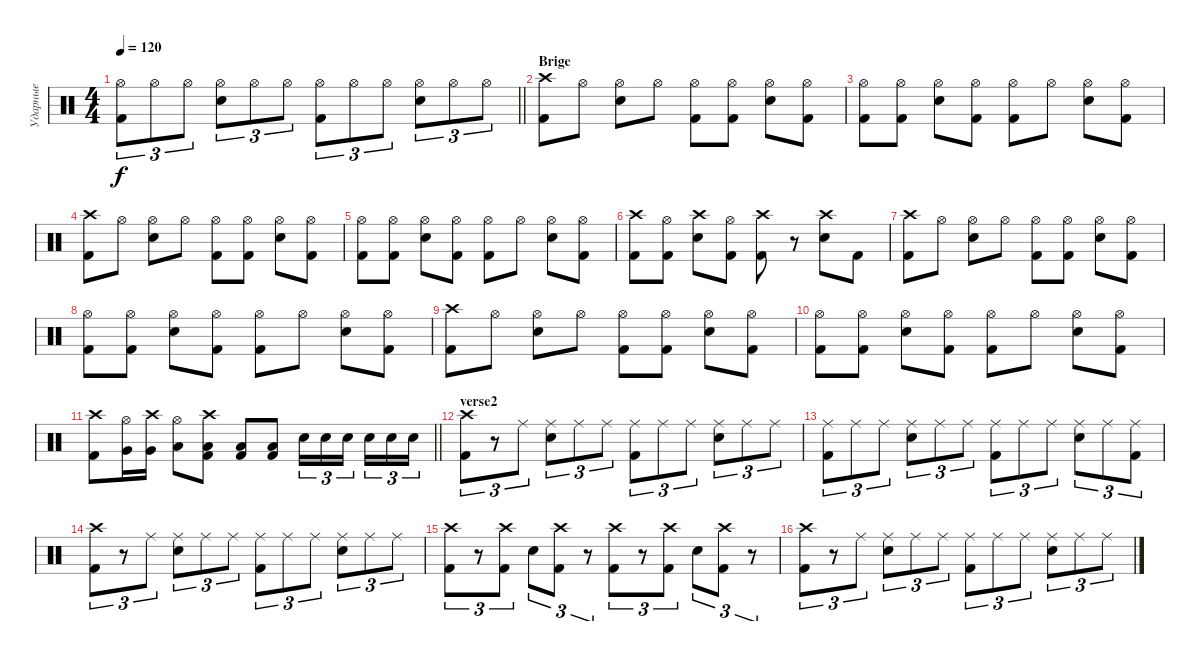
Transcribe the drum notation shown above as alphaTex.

\track ("Ударные" "Ударные") {instrument percussion}
\staff {score}
\articulation defaults
\ts (4 4)
\tempo 120
\clef neutral
\barLineRight lightlight
\ks c
("Hi-Hat (open)" "Kick (hit) 2").8{tu (3 2) dy f} "Hi-Hat (open)".8{tu (3 2)} "Hi-Hat (open)".8{tu (3 2)} ("Hi-Hat (open)" "Snare (hit) 2").8{tu (3 2)} "Hi-Hat (open)".8{tu (3 2)} "Hi-Hat (open)".8{tu (3 2)} ("Hi-Hat (open)" "Kick (hit) 2").8{tu (3 2)} "Hi-Hat (open)".8{tu (3 2)} "Hi-Hat (open)".8{tu (3 2)} ("Hi-Hat (open)" "Snare (hit) 2").8{tu (3 2)} "Hi-Hat (open)".8{tu (3 2)} "Hi-Hat (open)".8{tu (3 2)} |
\section ("" "Brige")
("Crash high (hit)" "Kick (hit) 2").8 "Hi-Hat (open)".8 ("Hi-Hat (open)" "Snare (hit) 2").8 "Hi-Hat (open)".8 ("Hi-Hat (open)" "Kick (hit) 2").8 ("Hi-Hat (open)" "Kick (hit) 2").8 ("Hi-Hat (open)" "Snare (hit) 2").8 ("Hi-Hat (open)" "Kick (hit) 2").8 |
("Hi-Hat (open)" "Kick (hit) 2").8 ("Hi-Hat (open)" "Kick (hit) 2").8 ("Hi-Hat (open)" "Snare (hit) 2").8 ("Hi-Hat (open)" "Kick (hit) 2").8 ("Hi-Hat (open)" "Kick (hit) 2").8 "Hi-Hat (open)".8 ("Hi-Hat (open)" "Snare (hit) 2").8 ("Hi-Hat (open)" "Kick (hit) 2").8 |
("Crash high (hit)" "Kick (hit) 2").8 "Hi-Hat (open)".8 ("Hi-Hat (open)" "Snare (hit) 2").8 "Hi-Hat (open)".8 ("Hi-Hat (open)" "Kick (hit) 2").8 ("Hi-Hat (open)" "Kick (hit) 2").8 ("Hi-Hat (open)" "Snare (hit) 2").8 ("Hi-Hat (open)" "Kick (hit) 2").8 |
("Hi-Hat (open)" "Kick (hit) 2").8 ("Hi-Hat (open)" "Kick (hit) 2").8 ("Hi-Hat (open)" "Snare (hit) 2").8 ("Hi-Hat (open)" "Kick (hit) 2").8 ("Hi-Hat (open)" "Kick (hit) 2").8 "Hi-Hat (open)".8 ("Hi-Hat (open)" "Snare (hit) 2").8 ("Hi-Hat (open)" "Kick (hit) 2").8 |
("Crash high (hit)" "Kick (hit) 2").8 ("Hi-Hat (open)" "Kick (hit) 2").8 ("Crash high (hit)" "Snare (hit) 2").8 ("Hi-Hat (open)" "Kick (hit) 2").8 ("Crash high (hit)" "Kick (hit) 2").8 r.8 ("Crash high (hit)" "Snare (hit) 2").8 "Kick (hit) 2".8 |
("Crash high (hit)" "Kick (hit) 2").8 "Hi-Hat (open)".8 ("Hi-Hat (open)" "Snare (hit) 2").8 "Hi-Hat (open)".8 ("Hi-Hat (open)" "Kick (hit) 2").8 ("Hi-Hat (open)" "Kick (hit) 2").8 ("Hi-Hat (open)" "Snare (hit) 2").8 ("Hi-Hat (open)" "Kick (hit) 2").8 |
("Hi-Hat (open)" "Kick (hit) 2").8 ("Hi-Hat (open)" "Kick (hit) 2").8 ("Hi-Hat (open)" "Snare (hit) 2").8 ("Hi-Hat (open)" "Kick (hit) 2").8 ("Hi-Hat (open)" "Kick (hit) 2").8 "Hi-Hat (open)".8 ("Hi-Hat (open)" "Snare (hit) 2").8 ("Hi-Hat (open)" "Kick (hit) 2").8 |
("Crash high (hit)" "Kick (hit) 2").8 "Hi-Hat (open)".8 ("Hi-Hat (open)" "Snare (hit) 2").8 "Hi-Hat (open)".8 ("Hi-Hat (open)" "Kick (hit) 2").8 ("Hi-Hat (open)" "Kick (hit) 2").8 ("Hi-Hat (open)" "Snare (hit) 2").8 ("Hi-Hat (open)" "Kick (hit) 2").8 |
("Hi-Hat (open)" "Kick (hit) 2").8 ("Hi-Hat (open)" "Kick (hit) 2").8 ("Hi-Hat (open)" "Snare (hit) 2").8 ("Hi-Hat (open)" "Kick (hit) 2").8 ("Hi-Hat (open)" "Kick (hit) 2").8 "Hi-Hat (open)".8 ("Hi-Hat (open)" "Snare (hit) 2").8 ("Hi-Hat (open)" "Kick (hit) 2").8 |
\barLineRight lightlight
("Crash high (hit)" "Kick (hit) 2").8 ("Hi-Hat (open)" "Very Low Tom (hit)").16 ("Crash high (hit)" "Very Low Tom (hit)").16 ("Hi-Hat (open)" "Low Floor Tom (hit)").8 ("Crash high (hit)" "Low Floor Tom (hit)" "Kick (hit) 2").8 ("Low Tom (hit)" "Kick (hit) 2").8 ("Low Tom (hit)" "Kick (hit) 2").8 "Snare (hit) 2".16{tu (3 2)} "Snare (hit) 2".16{tu (3 2)} "Snare (hit) 2".16{tu (3 2) beam splitsecondary} "Snare (hit) 2".16{tu (3 2)} "Snare (hit) 2".16{tu (3 2)} "Snare (hit) 2".16{tu (3 2)} |
\section ("" "verse2")
("Crash high (hit)" "Kick (hit) 2").8{tu (3 2)} r.8{tu (3 2)} "Ride (middle)".8{tu (3 2)} ("Ride (middle)" "Snare (hit) 2").8{tu (3 2)} "Ride (middle)".8{tu (3 2)} "Ride (middle)".8{tu (3 2)} ("Ride (middle)" "Kick (hit) 2").8{tu (3 2)} "Ride (middle)".8{tu (3 2)} "Ride (middle)".8{tu (3 2)} ("Ride (middle)" "Snare (hit) 2").8{tu (3 2)} "Ride (middle)".8{tu (3 2)} "Ride (middle)".8{tu (3 2)} |
("Ride (middle)" "Kick (hit) 2").8{tu (3 2)} "Ride (middle)".8{tu (3 2)} "Ride (middle)".8{tu (3 2)} ("Ride (middle)" "Snare (hit) 2").8{tu (3 2)} "Ride (middle)".8{tu (3 2)} "Ride (middle)".8{tu (3 2)} ("Ride (middle)" "Kick (hit) 2").8{tu (3 2)} "Ride (middle)".8{tu (3 2)} "Ride (middle)".8{tu (3 2)} ("Ride (middle)" "Snare (hit) 2").8{tu (3 2)} "Ride (middle)".8{tu (3 2)} ("Ride (middle)" "Kick (hit) 2").8{tu (3 2)} |
("Crash high (hit)" "Kick (hit) 2").8{tu (3 2)} r.8{tu (3 2)} "Ride (middle)".8{tu (3 2)} ("Ride (middle)" "Snare (hit) 2").8{tu (3 2)} "Ride (middle)".8{tu (3 2)} "Ride (middle)".8{tu (3 2)} ("Ride (middle)" "Kick (hit) 2").8{tu (3 2)} "Ride (middle)".8{tu (3 2)} "Ride (middle)".8{tu (3 2)} ("Ride (middle)" "Snare (hit) 2").8{tu (3 2)} "Ride (middle)".8{tu (3 2)} "Ride (middle)".8{tu (3 2)} |
("Crash high (hit)" "Kick (hit) 2").8{tu (3 2)} r.8{tu (3 2)} ("Crash high (hit)" "Kick (hit) 2").8{tu (3 2)} "Snare (hit) 2".8{tu (3 2)} ("Crash high (hit)" "Kick (hit) 2").8{tu (3 2)} r.8{tu (3 2)} ("Crash high (hit)" "Kick (hit) 2").8{tu (3 2)} r.8{tu (3 2)} ("Crash high (hit)" "Kick (hit) 2").8{tu (3 2)} "Snare (hit) 2".8{tu (3 2)} ("Crash high (hit)" "Kick (hit) 2").8{tu (3 2)} r.8{tu (3 2)} |
("Crash high (hit)" "Kick (hit) 2").8{tu (3 2)} r.8{tu (3 2)} "Ride (middle)".8{tu (3 2)} ("Ride (middle)" "Snare (hit) 2").8{tu (3 2)} "Ride (middle)".8{tu (3 2)} "Ride (middle)".8{tu (3 2)} ("Ride (middle)" "Kick (hit) 2").8{tu (3 2)} "Ride (middle)".8{tu (3 2)} "Ride (middle)".8{tu (3 2)} ("Ride (middle)" "Snare (hit) 2").8{tu (3 2)} "Ride (middle)".8{tu (3 2)} "Ride (middle)".8{tu (3 2)}
